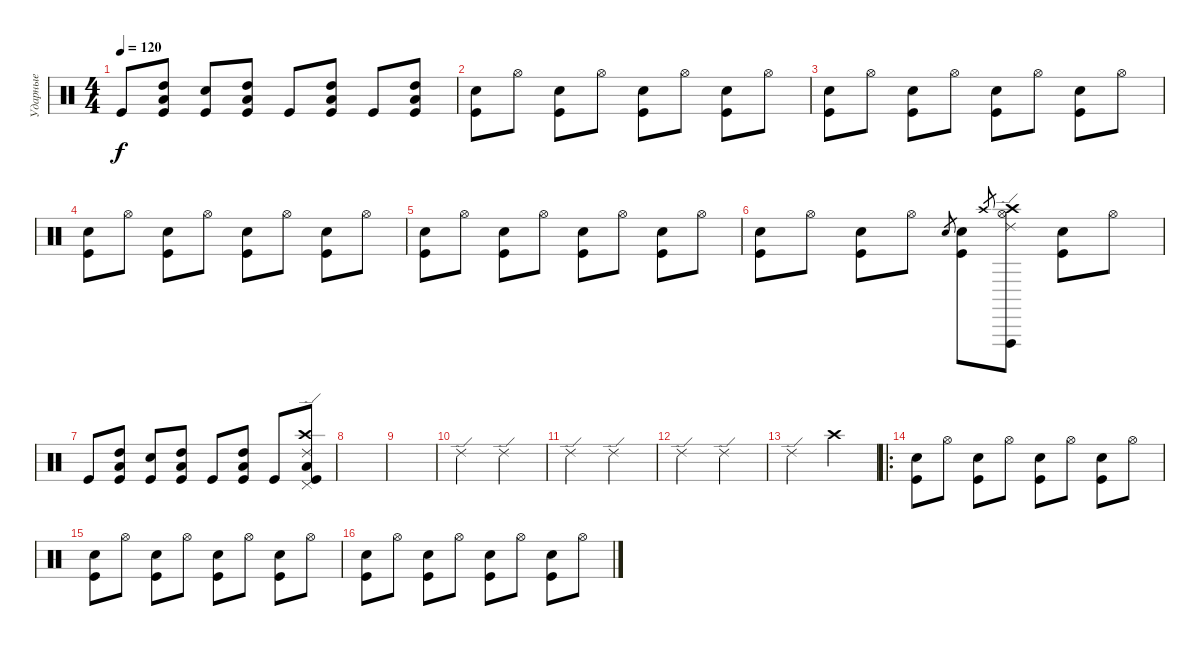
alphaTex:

\track ("Ударные" "Ударные") {instrument percussion}
\staff {score}
\articulation defaults
\ts (4 4)
\tempo 120
\clef neutral
\ks c "Kick (hit)".8{dy f}
("High Tom (hit)" "Low Tom (hit)" "Kick (hit)").8 ("Snare (hit)" "Kick (hit)").8 ("High Tom (hit)" "Low Tom (hit)" "Kick (hit)").8 "Kick (hit)".8 ("High Tom (hit)" "Low Tom (hit)" "Kick (hit)").8 "Kick (hit)".8 ("High Tom (hit)" "Low Tom (hit)" "Kick (hit)").8 |
("Electric Snare (hit)" "Kick (hit)").8 "Hi-Hat (open)".8 ("Electric Snare (hit)" "Kick (hit)").8 "Hi-Hat (open)".8 ("Electric Snare (hit)" "Kick (hit)").8 "Hi-Hat (open)".8 ("Electric Snare (hit)" "Kick (hit)").8 "Hi-Hat (open)".8 |
("Electric Snare (hit)" "Kick (hit)").8 "Hi-Hat (open)".8 ("Electric Snare (hit)" "Kick (hit)").8 "Hi-Hat (open)".8 ("Electric Snare (hit)" "Kick (hit)").8 "Hi-Hat (open)".8 ("Electric Snare (hit)" "Kick (hit)").8 "Hi-Hat (open)".8 |
("Electric Snare (hit)" "Kick (hit)").8 "Hi-Hat (open)".8 ("Electric Snare (hit)" "Kick (hit)").8 "Hi-Hat (open)".8 ("Electric Snare (hit)" "Kick (hit)").8 "Hi-Hat (open)".8 ("Electric Snare (hit)" "Kick (hit)").8 "Hi-Hat (open)".8 |
("Electric Snare (hit)" "Kick (hit)").8 "Hi-Hat (open)".8 ("Electric Snare (hit)" "Kick (hit)").8 "Hi-Hat (open)".8 ("Electric Snare (hit)" "Kick (hit)").8 "Hi-Hat (open)".8 ("Electric Snare (hit)" "Kick (hit)").8 "Hi-Hat (open)".8 |
("Electric Snare (hit)" "Kick (hit)").8 "Hi-Hat (open)".8 ("Electric Snare (hit)" "Kick (hit)").8 "Hi-Hat (open)".8 "Electric Snare (hit)".8{gr} ("Electric Snare (hit)" "Kick (hit)").8 "Crash high (hit)".8{gr} ("Vibraslap (hit)" "Crash high (hit)" "Hi-Hat (open)" "Ride (edge) 2").8 ("Electric Snare (hit)" "Kick (hit)").8 "Hi-Hat (open)".8 |
"Kick (hit)".8 ("High Tom (hit)" "Low Tom (hit)" "Kick (hit)").8 ("Snare (hit)" "Kick (hit)").8 ("High Tom (hit)" "Low Tom (hit)" "Kick (hit)").8 "Kick (hit)".8 ("High Tom (hit)" "Low Tom (hit)" "Kick (hit)").8 "Kick (hit)".8 ("Pedal Hi-Hat (hit)" "Crash high (hit)" "Low Tom (hit)" "Ride (edge) 2" "Kick (hit)").8 |
|
|
"Ride (edge) 2".2 "Ride (edge) 2".2 |
"Ride (edge) 2".2 "Ride (edge) 2".2 |
"Ride (edge) 2".2 "Ride (edge) 2".2 |
"Ride (edge) 2".2 "Crash high (hit)".2 |
\ro
("Electric Snare (hit)" "Kick (hit)").8 "Hi-Hat (open)".8 ("Electric Snare (hit)" "Kick (hit)").8 "Hi-Hat (open)".8 ("Electric Snare (hit)" "Kick (hit)").8 "Hi-Hat (open)".8 ("Electric Snare (hit)" "Kick (hit)").8 "Hi-Hat (open)".8 |
("Electric Snare (hit)" "Kick (hit)").8 "Hi-Hat (open)".8 ("Electric Snare (hit)" "Kick (hit)").8 "Hi-Hat (open)".8 ("Electric Snare (hit)" "Kick (hit)").8 "Hi-Hat (open)".8 ("Electric Snare (hit)" "Kick (hit)").8 "Hi-Hat (open)".8 |
("Electric Snare (hit)" "Kick (hit)").8 "Hi-Hat (open)".8 ("Electric Snare (hit)" "Kick (hit)").8 "Hi-Hat (open)".8 ("Electric Snare (hit)" "Kick (hit)").8 "Hi-Hat (open)".8 ("Electric Snare (hit)" "Kick (hit)").8 "Hi-Hat (open)".8
